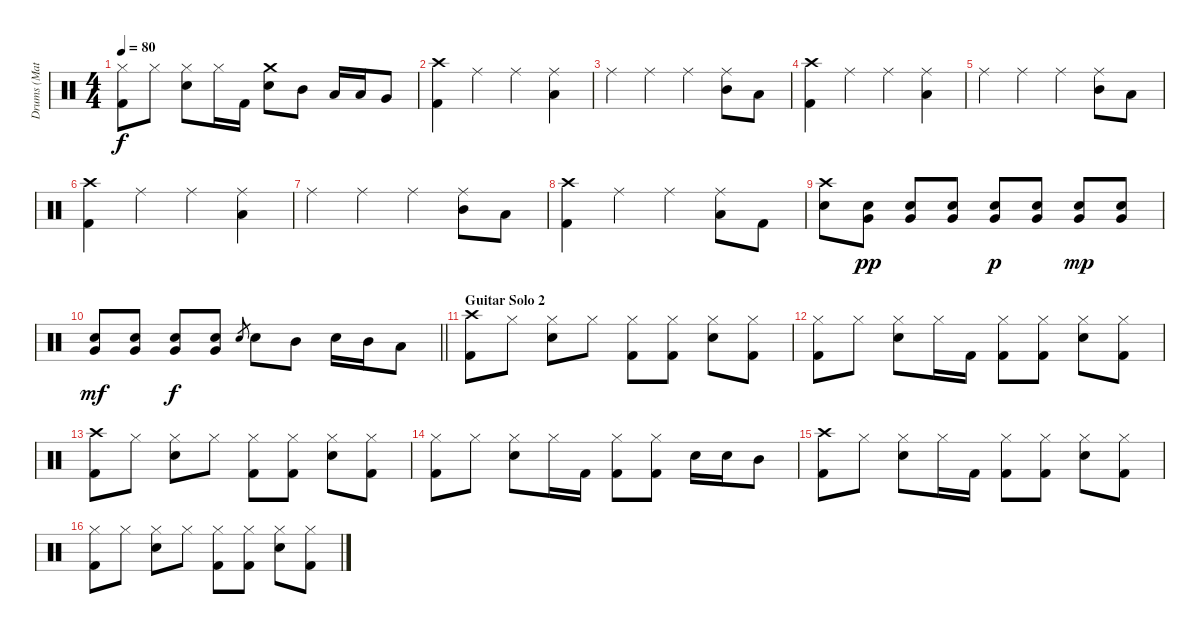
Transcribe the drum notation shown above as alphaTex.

\track ("Drums (Matt)" "Drums (Mat") {instrument percussion}
\staff {score}
\articulation defaults
\ts (4 4)
\tempo 80
\clef neutral
\ks c
("Hi-Hat (closed)" "Kick (hit) 2").8{dy f} "Hi-Hat (closed)".8 ("Hi-Hat (closed)" "Snare (hit) 2").8 "Hi-Hat (closed)".16 "Kick (hit) 2".16 ("Crash medium (hit)" "Snare (hit) 2").8 "Mid Tom (hit)".8 "Low Tom (hit)".16 "Low Tom (hit)".16 "Very Low Tom (hit)".8 |
("Crash high (hit)" "Kick (hit) 2").4 "Ride (middle)".4 "Ride (middle)".4 ("Ride (middle)" "Low Tom (hit)").4 |
"Ride (middle)".4 "Ride (middle)".4 "Ride (middle)".4 ("Ride (middle)" "Mid Tom (hit)").8 "Low Tom (hit)".8 |
("Crash high (hit)" "Kick (hit) 2").4 "Ride (middle)".4 "Ride (middle)".4 ("Ride (middle)" "Low Tom (hit)").4 |
"Ride (middle)".4 "Ride (middle)".4 "Ride (middle)".4 ("Ride (middle)" "Mid Tom (hit)").8 "Low Tom (hit)".8 |
("Crash high (hit)" "Kick (hit) 2").4 "Ride (middle)".4 "Ride (middle)".4 ("Ride (middle)" "Low Tom (hit)").4 |
"Ride (middle)".4 "Ride (middle)".4 "Ride (middle)".4 ("Ride (middle)" "Mid Tom (hit)").8 "Low Tom (hit)".8 |
("Crash high (hit)" "Kick (hit) 2").4 "Ride (middle)".4 "Ride (middle)".4 ("Ride (middle)" "Low Tom (hit)").8 "Kick (hit) 2".8 |
("Crash high (hit)" "Snare (hit) 2").8 ("Very Low Tom (hit)" "Snare (hit) 2").8{dy pp} ("Very Low Tom (hit)" "Snare (hit) 2").8 ("Very Low Tom (hit)" "Snare (hit) 2").8 ("Very Low Tom (hit)" "Snare (hit) 2").8{dy p} ("Very Low Tom (hit)" "Snare (hit) 2").8 ("Very Low Tom (hit)" "Snare (hit) 2").8{dy mp} ("Very Low Tom (hit)" "Snare (hit) 2").8 |
\barLineRight lightlight
("Very Low Tom (hit)" "Snare (hit) 2").8{dy mf} ("Very Low Tom (hit)" "Snare (hit) 2").8 ("Very Low Tom (hit)" "Snare (hit) 2").8{dy f} ("Very Low Tom (hit)" "Snare (hit) 2").8 "Snare (hit) 2".8{gr} "Snare (hit) 2".8 "Mid Tom (hit)".8 "Snare (hit) 2".16 "Mid Tom (hit)".16 "Low Tom (hit)".8 |
\section ("" "Guitar Solo 2")
("Crash high (hit)" "Kick (hit) 2").8 "Hi-Hat (closed)".8 ("Hi-Hat (closed)" "Snare (hit) 2").8 "Hi-Hat (closed)".8 ("Hi-Hat (closed)" "Kick (hit) 2").8 ("Hi-Hat (closed)" "Kick (hit) 2").8 ("Hi-Hat (closed)" "Snare (hit) 2").8 ("Hi-Hat (closed)" "Kick (hit) 2").8 |
("Hi-Hat (closed)" "Kick (hit) 2").8 "Hi-Hat (closed)".8 ("Hi-Hat (closed)" "Snare (hit) 2").8 "Hi-Hat (closed)".16 "Kick (hit) 2".16 ("Hi-Hat (closed)" "Kick (hit) 2").8 ("Hi-Hat (closed)" "Kick (hit) 2").8 ("Hi-Hat (closed)" "Snare (hit) 2").8 ("Hi-Hat (closed)" "Kick (hit) 2").8 |
("Crash high (hit)" "Kick (hit) 2").8 "Hi-Hat (closed)".8 ("Hi-Hat (closed)" "Snare (hit) 2").8 "Hi-Hat (closed)".8 ("Hi-Hat (closed)" "Kick (hit) 2").8 ("Hi-Hat (closed)" "Kick (hit) 2").8 ("Hi-Hat (closed)" "Snare (hit) 2").8 ("Hi-Hat (closed)" "Kick (hit) 2").8 |
("Hi-Hat (closed)" "Kick (hit) 2").8 "Hi-Hat (closed)".8 ("Hi-Hat (closed)" "Snare (hit) 2").8 "Hi-Hat (closed)".16 "Kick (hit) 2".16 ("Hi-Hat (closed)" "Kick (hit) 2").8 ("Hi-Hat (closed)" "Kick (hit) 2").8 "Snare (hit) 2".16 "Snare (hit) 2".16 "Mid Tom (hit)".8 |
("Crash high (hit)" "Kick (hit) 2").8 "Hi-Hat (closed)".8 ("Hi-Hat (closed)" "Snare (hit) 2").8 "Hi-Hat (closed)".16 "Kick (hit) 2".16 ("Hi-Hat (closed)" "Kick (hit) 2").8 ("Hi-Hat (closed)" "Kick (hit) 2").8 ("Hi-Hat (closed)" "Snare (hit) 2").8 ("Hi-Hat (closed)" "Kick (hit) 2").8 |
("Hi-Hat (closed)" "Kick (hit) 2").8 "Hi-Hat (closed)".8 ("Hi-Hat (closed)" "Snare (hit) 2").8 "Hi-Hat (closed)".8 ("Hi-Hat (closed)" "Kick (hit) 2").8 ("Hi-Hat (closed)" "Kick (hit) 2").8 ("Hi-Hat (closed)" "Snare (hit) 2").8 ("Hi-Hat (closed)" "Kick (hit) 2").8
